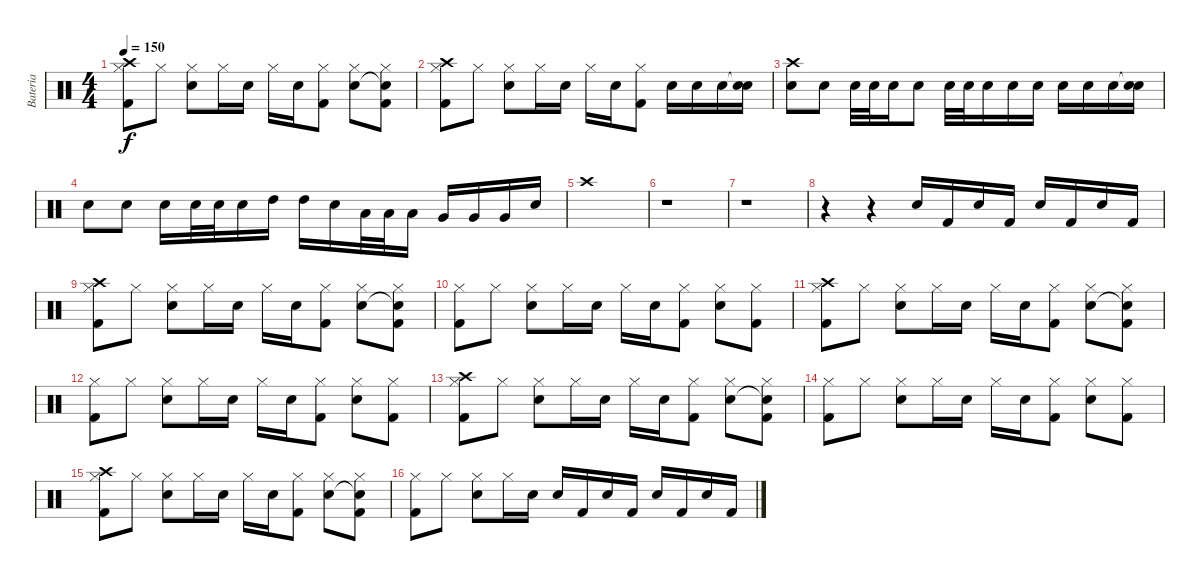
\track ("Bateria" "Bateria") {instrument percussion}
\staff {score}
\articulation defaults
\ts (4 4)
\tempo 150
\clef neutral
\ks c
("Hi-Hat (closed)" "Crash high (hit)" "Kick (hit) 2").8{dy f} "Hi-Hat (closed)".8 ("Hi-Hat (closed)" "Snare (hit) 2").8 "Hi-Hat (closed)".16 "Snare (hit) 2".16 "Hi-Hat (closed)".16 "Snare (hit) 2".16 ("Hi-Hat (closed)" "Kick (hit) 2").8 ("Hi-Hat (closed)" "Snare (hit) 2").8 ("Hi-Hat (closed)" "Snare (hit)"{t} "Kick (hit) 2").8 |
("Hi-Hat (closed)" "Crash high (hit)" "Kick (hit) 2").8 "Hi-Hat (closed)".8 ("Hi-Hat (closed)" "Snare (hit) 2").8 "Hi-Hat (closed)".16 "Snare (hit) 2".16 "Hi-Hat (closed)".16 "Snare (hit) 2".16 ("Hi-Hat (closed)" "Kick (hit) 2").8 "Snare (hit) 2".16 "Snare (hit) 2".16 "Snare (hit) 2".16 ("Snare (hit)"{t} "Snare (hit) 2").16 |
("Crash high (hit)" "Snare (hit) 2").8 "Snare (hit) 2".8 "Snare (hit) 2".32 "Snare (hit) 2".32 "Snare (hit) 2".16 "Snare (hit) 2".8 "Snare (hit) 2".32 "Snare (hit) 2".32 "Snare (hit) 2".16 "Snare (hit) 2".16 "Snare (hit) 2".16 "Snare (hit) 2".16 "Snare (hit) 2".16 "Snare (hit) 2".16 ("Snare (hit)"{t} "Snare (hit) 2").16 |
"Snare (hit) 2".8 "Snare (hit) 2".8 "Snare (hit) 2".16 "Snare (hit) 2".32 "Snare (hit) 2".32 "Snare (hit) 2".16 "High Tom (hit)".16 "High Tom (hit)".16 "Snare (hit) 2".16 "Low Tom (hit)".32 "Low Tom (hit)".32 "Low Tom (hit)".16 "Very Low Tom (hit)".16 "Very Low Tom (hit)".16 "Very Low Tom (hit)".16 "Snare (hit) 2".16 |
"Crash high (hit)".1 |
r.1 |
r.1 |
r.4 r.4 "Snare (hit) 2".16 "Kick (hit) 2".16 "Snare (hit) 2".16 "Kick (hit) 2".16 "Snare (hit) 2".16 "Kick (hit) 2".16 "Snare (hit) 2".16 "Kick (hit) 2".16 |
("Hi-Hat (closed)" "Crash high (hit)" "Kick (hit) 2").8 "Hi-Hat (closed)".8 ("Hi-Hat (closed)" "Snare (hit) 2").8 "Hi-Hat (closed)".16 "Snare (hit) 2".16 "Hi-Hat (closed)".16 "Snare (hit) 2".16 ("Hi-Hat (closed)" "Kick (hit) 2").8 ("Hi-Hat (closed)" "Snare (hit) 2").8 ("Hi-Hat (closed)" "Snare (hit)"{t} "Kick (hit) 2").8 |
("Hi-Hat (closed)" "Kick (hit) 2").8 "Hi-Hat (closed)".8 ("Hi-Hat (closed)" "Snare (hit) 2").8 "Hi-Hat (closed)".16 "Snare (hit) 2".16 "Hi-Hat (closed)".16 "Snare (hit) 2".16 ("Hi-Hat (closed)" "Kick (hit) 2").8 ("Hi-Hat (closed)" "Snare (hit) 2").8 ("Hi-Hat (closed)" "Kick (hit) 2").8 |
("Hi-Hat (closed)" "Crash high (hit)" "Kick (hit) 2").8 "Hi-Hat (closed)".8 ("Hi-Hat (closed)" "Snare (hit) 2").8 "Hi-Hat (closed)".16 "Snare (hit) 2".16 "Hi-Hat (closed)".16 "Snare (hit) 2".16 ("Hi-Hat (closed)" "Kick (hit) 2").8 ("Hi-Hat (closed)" "Snare (hit) 2").8 ("Hi-Hat (closed)" "Snare (hit)"{t} "Kick (hit) 2").8 |
("Hi-Hat (closed)" "Kick (hit) 2").8 "Hi-Hat (closed)".8 ("Hi-Hat (closed)" "Snare (hit) 2").8 "Hi-Hat (closed)".16 "Snare (hit) 2".16 "Hi-Hat (closed)".16 "Snare (hit) 2".16 ("Hi-Hat (closed)" "Kick (hit) 2").8 ("Hi-Hat (closed)" "Snare (hit) 2").8 ("Hi-Hat (closed)" "Kick (hit) 2").8 |
("Hi-Hat (closed)" "Crash high (hit)" "Kick (hit) 2").8 "Hi-Hat (closed)".8 ("Hi-Hat (closed)" "Snare (hit) 2").8 "Hi-Hat (closed)".16 "Snare (hit) 2".16 "Hi-Hat (closed)".16 "Snare (hit) 2".16 ("Hi-Hat (closed)" "Kick (hit) 2").8 ("Hi-Hat (closed)" "Snare (hit) 2").8 ("Hi-Hat (closed)" "Snare (hit)"{t} "Kick (hit) 2").8 |
("Hi-Hat (closed)" "Kick (hit) 2").8 "Hi-Hat (closed)".8 ("Hi-Hat (closed)" "Snare (hit) 2").8 "Hi-Hat (closed)".16 "Snare (hit) 2".16 "Hi-Hat (closed)".16 "Snare (hit) 2".16 ("Hi-Hat (closed)" "Kick (hit) 2").8 ("Hi-Hat (closed)" "Snare (hit) 2").8 ("Hi-Hat (closed)" "Kick (hit) 2").8 |
("Hi-Hat (closed)" "Crash high (hit)" "Kick (hit) 2").8 "Hi-Hat (closed)".8 ("Hi-Hat (closed)" "Snare (hit) 2").8 "Hi-Hat (closed)".16 "Snare (hit) 2".16 "Hi-Hat (closed)".16 "Snare (hit) 2".16 ("Hi-Hat (closed)" "Kick (hit) 2").8 ("Hi-Hat (closed)" "Snare (hit) 2").8 ("Hi-Hat (closed)" "Snare (hit)"{t} "Kick (hit) 2").8 |
("Hi-Hat (closed)" "Kick (hit) 2").8 "Hi-Hat (closed)".8 ("Hi-Hat (closed)" "Snare (hit) 2").8 "Hi-Hat (closed)".16 "Snare (hit) 2".16 "Snare (hit) 2".16 "Kick (hit) 2".16 "Snare (hit) 2".16 "Kick (hit) 2".16 "Snare (hit) 2".16 "Kick (hit) 2".16 "Snare (hit) 2".16 "Kick (hit) 2".16
